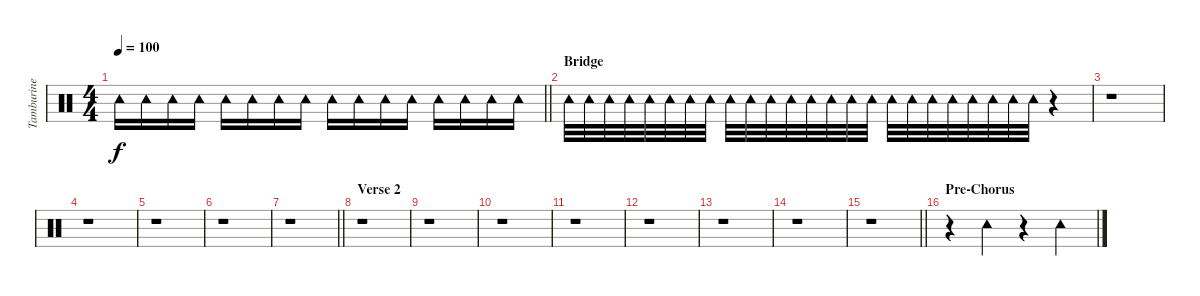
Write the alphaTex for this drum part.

\track ("Tamburine" "Tamburine") {instrument percussion}
\staff {score}
\articulation defaults
\ts (4 4)
\tempo 100
\clef neutral
\barLineRight lightlight
\ks c "Tambourine (hit)".16{dy f} "Tambourine (hit)".16 "Tambourine (hit)".16 "Tambourine (hit)".16 "Tambourine (hit)".16 "Tambourine (hit)".16 "Tambourine (hit)".16 "Tambourine (hit)".16 "Tambourine (hit)".16 "Tambourine (hit)".16 "Tambourine (hit)".16 "Tambourine (hit)".16 "Tambourine (hit)".16 "Tambourine (hit)".16 "Tambourine (hit)".16 "Tambourine (hit)".16
|
\section ("" "Bridge")
"Tambourine (hit)".32 "Tambourine (hit)".32 "Tambourine (hit)".32 "Tambourine (hit)".32 "Tambourine (hit)".32 "Tambourine (hit)".32 "Tambourine (hit)".32 "Tambourine (hit)".32 "Tambourine (hit)".32 "Tambourine (hit)".32 "Tambourine (hit)".32 "Tambourine (hit)".32 "Tambourine (hit)".32 "Tambourine (hit)".32 "Tambourine (hit)".32 "Tambourine (hit)".32 "Tambourine (hit)".32 "Tambourine (hit)".32 "Tambourine (hit)".32 "Tambourine (hit)".32 "Tambourine (hit)".32 "Tambourine (hit)".32 "Tambourine (hit)".32 "Tambourine (hit)".32 r.4 |
r.1 |
r.1 |
r.1 |
r.1 |
\barLineRight lightlight
r.1 |
\section ("" "Verse 2")
r.1 |
r.1 |
r.1 |
r.1 |
r.1 |
r.1 |
r.1 |
\barLineRight lightlight
r.1 |
\section ("" "Pre-Chorus")
r.4 "Tambourine (hit)".4 r.4 "Tambourine (hit)".4
